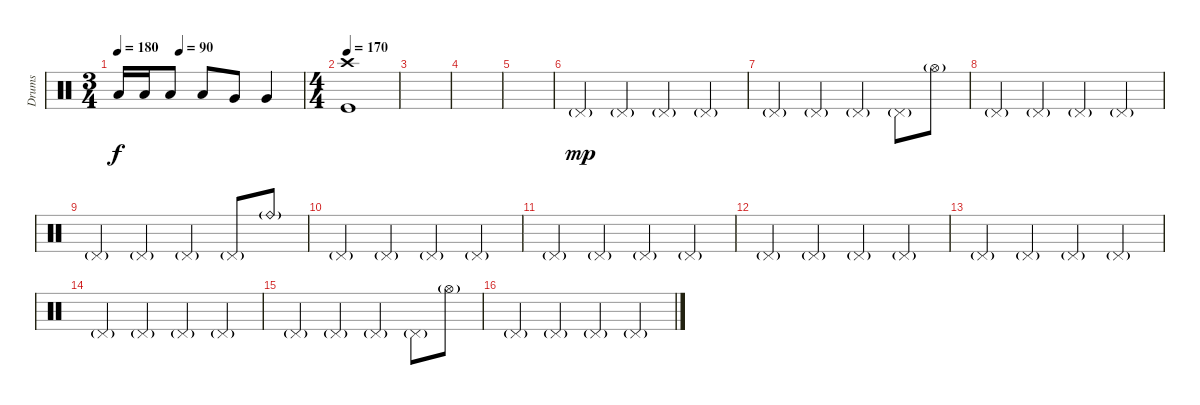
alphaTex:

\track ("Drums" "Drums") {instrument percussion}
\staff {score}
\articulation defaults
\ts (3 4)
\tempo 180
\tempo (90 0.3333333333333333)
\clef neutral
\ks c "Low Tom (hit)".16{dy f} "Low Tom (hit)".16 "Low Tom (hit)".8 "Low Tom (hit)".8 "Very Low Tom (hit)".8 "Very Low Tom (hit)".4
|
\ts (4 4)
\tempo 170
("Crash high (hit)" "Kick (hit)").1 |
|
|
|
"Pedal Hi-Hat (hit)"{g}.4{dy mp} "Pedal Hi-Hat (hit)"{g}.4 "Pedal Hi-Hat (hit)"{g}.4 "Pedal Hi-Hat (hit)"{g}.4 |
"Pedal Hi-Hat (hit)"{g}.4 "Pedal Hi-Hat (hit)"{g}.4 "Pedal Hi-Hat (hit)"{g}.4 "Pedal Hi-Hat (hit)"{g}.8 "Hi-Hat (open)"{g}.8 |
"Pedal Hi-Hat (hit)"{g}.4 "Pedal Hi-Hat (hit)"{g}.4 "Pedal Hi-Hat (hit)"{g}.4 "Pedal Hi-Hat (hit)"{g}.4 |
"Pedal Hi-Hat (hit)"{g}.4 "Pedal Hi-Hat (hit)"{g}.4 "Pedal Hi-Hat (hit)"{g}.4 "Pedal Hi-Hat (hit)"{g}.8 "Ride (bell)"{g}.8 |
"Pedal Hi-Hat (hit)"{g}.4 "Pedal Hi-Hat (hit)"{g}.4 "Pedal Hi-Hat (hit)"{g}.4 "Pedal Hi-Hat (hit)"{g}.4 |
"Pedal Hi-Hat (hit)"{g}.4 "Pedal Hi-Hat (hit)"{g}.4 "Pedal Hi-Hat (hit)"{g}.4 "Pedal Hi-Hat (hit)"{g}.4 |
"Pedal Hi-Hat (hit)"{g}.4 "Pedal Hi-Hat (hit)"{g}.4 "Pedal Hi-Hat (hit)"{g}.4 "Pedal Hi-Hat (hit)"{g}.4 |
"Pedal Hi-Hat (hit)"{g}.4 "Pedal Hi-Hat (hit)"{g}.4 "Pedal Hi-Hat (hit)"{g}.4 "Pedal Hi-Hat (hit)"{g}.4 |
"Pedal Hi-Hat (hit)"{g}.4 "Pedal Hi-Hat (hit)"{g}.4 "Pedal Hi-Hat (hit)"{g}.4 "Pedal Hi-Hat (hit)"{g}.4 |
"Pedal Hi-Hat (hit)"{g}.4 "Pedal Hi-Hat (hit)"{g}.4 "Pedal Hi-Hat (hit)"{g}.4 "Pedal Hi-Hat (hit)"{g}.8 "Hi-Hat (open)"{g}.8 |
"Pedal Hi-Hat (hit)"{g}.4 "Pedal Hi-Hat (hit)"{g}.4 "Pedal Hi-Hat (hit)"{g}.4 "Pedal Hi-Hat (hit)"{g}.4
